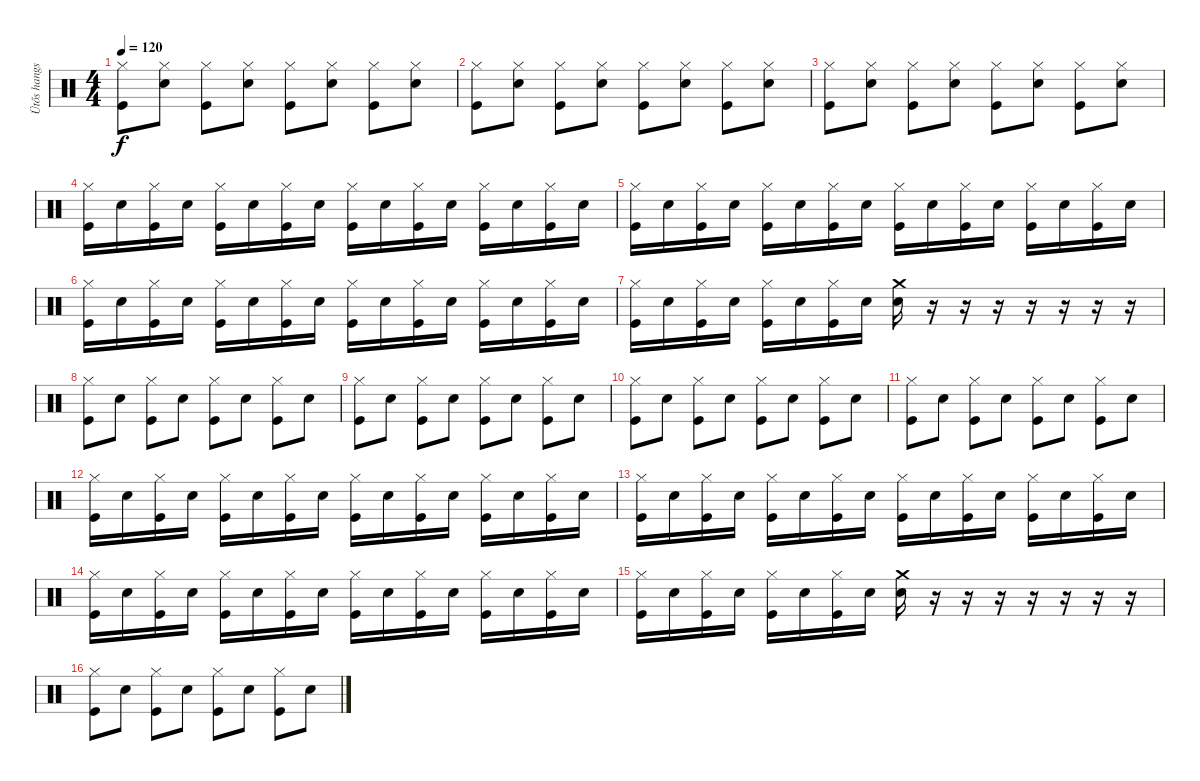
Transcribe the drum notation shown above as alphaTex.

\track ("Ütős hangszer" "Ütős hangs") {instrument percussion}
\staff {score}
\articulation defaults
\ts (4 4)
\tempo 120
\clef neutral
\ks c
("Hi-Hat (closed)" "Kick (hit)").8{dy f} ("Hi-Hat (closed)" "Snare (hit) 2").8 ("Hi-Hat (closed)" "Kick (hit)").8 ("Hi-Hat (closed)" "Snare (hit) 2").8 ("Hi-Hat (closed)" "Kick (hit)").8 ("Hi-Hat (closed)" "Snare (hit) 2").8 ("Hi-Hat (closed)" "Kick (hit)").8 ("Hi-Hat (closed)" "Snare (hit) 2").8 |
("Hi-Hat (closed)" "Kick (hit)").8 ("Hi-Hat (closed)" "Snare (hit) 2").8 ("Hi-Hat (closed)" "Kick (hit)").8 ("Hi-Hat (closed)" "Snare (hit) 2").8 ("Hi-Hat (closed)" "Kick (hit)").8 ("Hi-Hat (closed)" "Snare (hit) 2").8 ("Hi-Hat (closed)" "Kick (hit)").8 ("Hi-Hat (closed)" "Snare (hit) 2").8 |
("Hi-Hat (closed)" "Kick (hit)").8 ("Hi-Hat (closed)" "Snare (hit) 2").8 ("Hi-Hat (closed)" "Kick (hit)").8 ("Hi-Hat (closed)" "Snare (hit) 2").8 ("Hi-Hat (closed)" "Kick (hit)").8 ("Hi-Hat (closed)" "Snare (hit) 2").8 ("Hi-Hat (closed)" "Kick (hit)").8 ("Hi-Hat (closed)" "Snare (hit) 2").8 |
("Hi-Hat (closed)" "Kick (hit)").16 "Snare (hit) 2".16 ("Hi-Hat (closed)" "Kick (hit)").16 "Snare (hit) 2".16 ("Hi-Hat (closed)" "Kick (hit)").16 "Snare (hit) 2".16 ("Hi-Hat (closed)" "Kick (hit)").16 "Snare (hit) 2".16 ("Hi-Hat (closed)" "Kick (hit)").16 "Snare (hit) 2".16 ("Hi-Hat (closed)" "Kick (hit)").16 "Snare (hit) 2".16 ("Hi-Hat (closed)" "Kick (hit)").16 "Snare (hit) 2".16 ("Hi-Hat (closed)" "Kick (hit)").16 "Snare (hit) 2".16 |
("Hi-Hat (closed)" "Kick (hit)").16 "Snare (hit) 2".16 ("Hi-Hat (closed)" "Kick (hit)").16 "Snare (hit) 2".16 ("Hi-Hat (closed)" "Kick (hit)").16 "Snare (hit) 2".16 ("Hi-Hat (closed)" "Kick (hit)").16 "Snare (hit) 2".16 ("Hi-Hat (closed)" "Kick (hit)").16 "Snare (hit) 2".16 ("Hi-Hat (closed)" "Kick (hit)").16 "Snare (hit) 2".16 ("Hi-Hat (closed)" "Kick (hit)").16 "Snare (hit) 2".16 ("Hi-Hat (closed)" "Kick (hit)").16 "Snare (hit) 2".16 |
("Hi-Hat (closed)" "Kick (hit)").16 "Snare (hit) 2".16 ("Hi-Hat (closed)" "Kick (hit)").16 "Snare (hit) 2".16 ("Hi-Hat (closed)" "Kick (hit)").16 "Snare (hit) 2".16 ("Hi-Hat (closed)" "Kick (hit)").16 "Snare (hit) 2".16 ("Hi-Hat (closed)" "Kick (hit)").16 "Snare (hit) 2".16 ("Hi-Hat (closed)" "Kick (hit)").16 "Snare (hit) 2".16 ("Hi-Hat (closed)" "Kick (hit)").16 "Snare (hit) 2".16 ("Hi-Hat (closed)" "Kick (hit)").16 "Snare (hit) 2".16 |
("Hi-Hat (closed)" "Kick (hit)").16 "Snare (hit) 2".16 ("Hi-Hat (closed)" "Kick (hit)").16 "Snare (hit) 2".16 ("Hi-Hat (closed)" "Kick (hit)").16 "Snare (hit) 2".16 ("Hi-Hat (closed)" "Kick (hit)").16 "Snare (hit) 2".16 ("Crash medium (hit)" "Snare (hit) 2").16 r.16 r.16 r.16 r.16 r.16 r.16 r.16 |
("Hi-Hat (closed)" "Kick (hit)").8 "Snare (hit) 2".8 ("Hi-Hat (closed)" "Kick (hit)").8 "Snare (hit) 2".8 ("Hi-Hat (closed)" "Kick (hit)").8 "Snare (hit) 2".8 ("Hi-Hat (closed)" "Kick (hit)").8 "Snare (hit) 2".8 |
("Hi-Hat (closed)" "Kick (hit)").8 "Snare (hit) 2".8 ("Hi-Hat (closed)" "Kick (hit)").8 "Snare (hit) 2".8 ("Hi-Hat (closed)" "Kick (hit)").8 "Snare (hit) 2".8 ("Hi-Hat (closed)" "Kick (hit)").8 "Snare (hit) 2".8 |
("Hi-Hat (closed)" "Kick (hit)").8 "Snare (hit) 2".8 ("Hi-Hat (closed)" "Kick (hit)").8 "Snare (hit) 2".8 ("Hi-Hat (closed)" "Kick (hit)").8 "Snare (hit) 2".8 ("Hi-Hat (closed)" "Kick (hit)").8 "Snare (hit) 2".8 |
("Hi-Hat (closed)" "Kick (hit)").8 "Snare (hit) 2".8 ("Hi-Hat (closed)" "Kick (hit)").8 "Snare (hit) 2".8 ("Hi-Hat (closed)" "Kick (hit)").8 "Snare (hit) 2".8 ("Hi-Hat (closed)" "Kick (hit)").8 "Snare (hit) 2".8 |
("Hi-Hat (closed)" "Kick (hit)").16 "Snare (hit) 2".16 ("Hi-Hat (closed)" "Kick (hit)").16 "Snare (hit) 2".16 ("Hi-Hat (closed)" "Kick (hit)").16 "Snare (hit) 2".16 ("Hi-Hat (closed)" "Kick (hit)").16 "Snare (hit) 2".16 ("Hi-Hat (closed)" "Kick (hit)").16 "Snare (hit) 2".16 ("Hi-Hat (closed)" "Kick (hit)").16 "Snare (hit) 2".16 ("Hi-Hat (closed)" "Kick (hit)").16 "Snare (hit) 2".16 ("Hi-Hat (closed)" "Kick (hit)").16 "Snare (hit) 2".16 |
("Hi-Hat (closed)" "Kick (hit)").16 "Snare (hit) 2".16 ("Hi-Hat (closed)" "Kick (hit)").16 "Snare (hit) 2".16 ("Hi-Hat (closed)" "Kick (hit)").16 "Snare (hit) 2".16 ("Hi-Hat (closed)" "Kick (hit)").16 "Snare (hit) 2".16 ("Hi-Hat (closed)" "Kick (hit)").16 "Snare (hit) 2".16 ("Hi-Hat (closed)" "Kick (hit)").16 "Snare (hit) 2".16 ("Hi-Hat (closed)" "Kick (hit)").16 "Snare (hit) 2".16 ("Hi-Hat (closed)" "Kick (hit)").16 "Snare (hit) 2".16 |
("Hi-Hat (closed)" "Kick (hit)").16 "Snare (hit) 2".16 ("Hi-Hat (closed)" "Kick (hit)").16 "Snare (hit) 2".16 ("Hi-Hat (closed)" "Kick (hit)").16 "Snare (hit) 2".16 ("Hi-Hat (closed)" "Kick (hit)").16 "Snare (hit) 2".16 ("Hi-Hat (closed)" "Kick (hit)").16 "Snare (hit) 2".16 ("Hi-Hat (closed)" "Kick (hit)").16 "Snare (hit) 2".16 ("Hi-Hat (closed)" "Kick (hit)").16 "Snare (hit) 2".16 ("Hi-Hat (closed)" "Kick (hit)").16 "Snare (hit) 2".16 |
("Hi-Hat (closed)" "Kick (hit)").16 "Snare (hit) 2".16 ("Hi-Hat (closed)" "Kick (hit)").16 "Snare (hit) 2".16 ("Hi-Hat (closed)" "Kick (hit)").16 "Snare (hit) 2".16 ("Hi-Hat (closed)" "Kick (hit)").16 "Snare (hit) 2".16 ("Crash medium (hit)" "Snare (hit) 2").16 r.16 r.16 r.16 r.16 r.16 r.16 r.16 |
("Hi-Hat (closed)" "Kick (hit)").8 "Snare (hit) 2".8 ("Hi-Hat (closed)" "Kick (hit)").8 "Snare (hit) 2".8 ("Hi-Hat (closed)" "Kick (hit)").8 "Snare (hit) 2".8 ("Hi-Hat (closed)" "Kick (hit)").8 "Snare (hit) 2".8
